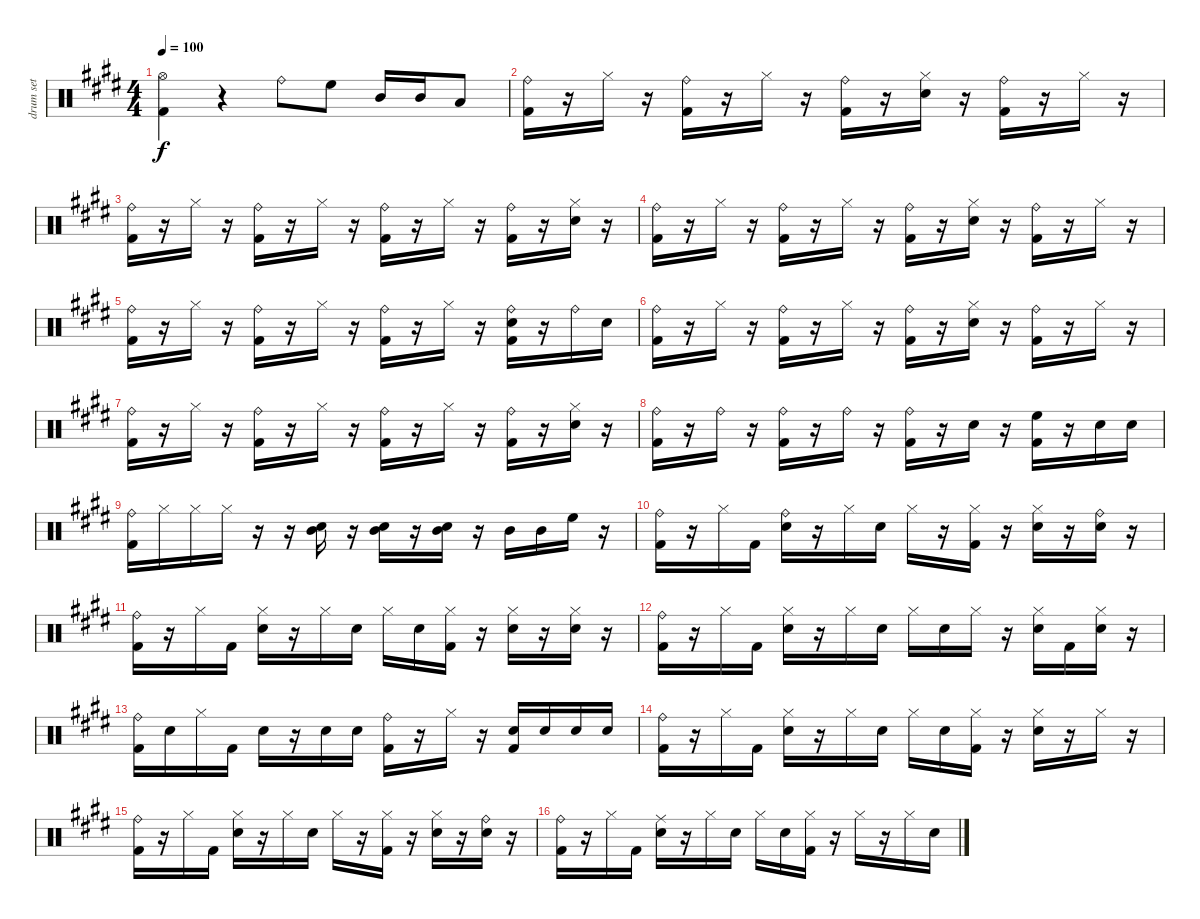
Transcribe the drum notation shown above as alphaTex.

\track ("drum set" "drum set") {instrument percussion}
\staff {score}
\articulation defaults
\ts (4 4)
\tempo 100
\clef neutral
\ks e
("Hi-Hat (open)" "Kick (hit) 2").4{dy f} r.4 "Ride (bell)".8 "High Floor Tom (hit)".8 "Mid Tom (hit)".16 "Mid Tom (hit)".16 "Low Tom (hit)".8 |
("Ride (bell)" "Kick (hit) 2").16 r.16 "Hi-Hat (closed)".16 r.16 ("Ride (bell)" "Kick (hit) 2").16 r.16 "Hi-Hat (closed)".16 r.16 ("Ride (bell)" "Kick (hit) 2").16 r.16 ("Hi-Hat (closed)" "Snare (hit) 2").16 r.16 ("Ride (bell)" "Kick (hit) 2").16 r.16 "Hi-Hat (closed)".16 r.16 |
("Ride (bell)" "Kick (hit) 2").16 r.16 "Hi-Hat (closed)".16 r.16 ("Ride (bell)" "Kick (hit) 2").16 r.16 "Hi-Hat (closed)".16 r.16 ("Ride (bell)" "Kick (hit) 2").16 r.16 "Hi-Hat (closed)".16 r.16 ("Ride (bell)" "Kick (hit) 2").16 r.16 ("Hi-Hat (closed)" "Snare (hit) 2").16 r.16 |
("Ride (bell)" "Kick (hit) 2").16 r.16 "Hi-Hat (closed)".16 r.16 ("Ride (bell)" "Kick (hit) 2").16 r.16 "Hi-Hat (closed)".16 r.16 ("Ride (bell)" "Kick (hit) 2").16 r.16 ("Hi-Hat (closed)" "Snare (hit) 2").16 r.16 ("Ride (bell)" "Kick (hit) 2").16 r.16 "Hi-Hat (closed)".16 r.16 |
("Ride (bell)" "Kick (hit) 2").16 r.16 "Hi-Hat (closed)".16 r.16 ("Ride (bell)" "Kick (hit) 2").16 r.16 "Hi-Hat (closed)".16 r.16 ("Ride (bell)" "Kick (hit) 2").16 r.16 "Hi-Hat (closed)".16 r.16 ("Ride (bell)" "Kick (hit) 2" "Snare (hit) 2").16 r.16 "Ride (bell)".16 "Snare (hit) 2".16 |
("Ride (bell)" "Kick (hit) 2").16 r.16 "Hi-Hat (closed)".16 r.16 ("Ride (bell)" "Kick (hit) 2").16 r.16 "Hi-Hat (closed)".16 r.16 ("Ride (bell)" "Kick (hit) 2").16 r.16 ("Hi-Hat (closed)" "Snare (hit) 2").16 r.16 ("Ride (bell)" "Kick (hit) 2").16 r.16 "Hi-Hat (closed)".16 r.16 |
("Ride (bell)" "Kick (hit) 2").16 r.16 "Hi-Hat (closed)".16 r.16 ("Ride (bell)" "Kick (hit) 2").16 r.16 "Hi-Hat (closed)".16 r.16 ("Ride (bell)" "Kick (hit) 2").16 r.16 "Hi-Hat (closed)".16 r.16 ("Ride (bell)" "Kick (hit) 2").16 r.16 ("Hi-Hat (closed)" "Snare (hit) 2").16 r.16 |
("Ride (bell)" "Kick (hit) 2").16 r.16 "Ride (bell)".16 r.16 ("Ride (bell)" "Kick (hit) 2").16 r.16 "Ride (bell)".16 r.16 ("Ride (bell)" "Kick (hit) 2").16 r.16 "Snare (hit) 2".16 r.16 ("High Floor Tom (hit)" "Kick (hit) 2").16 r.16 "Snare (hit) 2".16 "Snare (hit) 2".16 |
("Ride (bell)" "Kick (hit) 2").16 "Hi-Hat (closed)".16 "Hi-Hat (closed)".16 "Hi-Hat (closed)".16 r.16 r.16 ("Snare (hit) 2" "Mid Tom (hit)").16 r.16 ("Snare (hit) 2" "Mid Tom (hit)").16 r.16 ("Snare (hit) 2" "Mid Tom (hit)").16 r.16 "Mid Tom (hit)".16 "Mid Tom (hit)".16 "High Floor Tom (hit)".16 r.16 |
("Ride (bell)" "Kick (hit) 2").16 r.16 "Hi-Hat (closed)".16 "Kick (hit) 2".16 ("Ride (bell)" "Snare (hit) 2").16 r.16 "Hi-Hat (closed)".16 "Snare (hit) 2".16 "Hi-Hat (closed)".16 r.16 ("Hi-Hat (closed)" "Kick (hit) 2").16 r.16 ("Hi-Hat (closed)" "Snare (hit) 2").16 r.16 ("Ride (bell)" "Snare (hit) 2").16 r.16 |
("Ride (bell)" "Kick (hit) 2").16 r.16 "Hi-Hat (closed)".16 "Kick (hit) 2".16 ("Hi-Hat (closed)" "Snare (hit) 2").16 r.16 "Hi-Hat (closed)".16 "Snare (hit) 2".16 "Hi-Hat (closed)".16 "Snare (hit) 2".16 ("Hi-Hat (closed)" "Kick (hit) 2").16 r.16 ("Hi-Hat (closed)" "Snare (hit) 2").16 r.16 ("Hi-Hat (closed)" "Snare (hit) 2").16 r.16 |
("Ride (bell)" "Kick (hit) 2").16 r.16 "Hi-Hat (closed)".16 "Kick (hit) 2".16 ("Hi-Hat (closed)" "Snare (hit) 2").16 r.16 "Hi-Hat (closed)".16 "Snare (hit) 2".16 "Hi-Hat (closed)".16 "Snare (hit) 2".16 "Hi-Hat (closed)".16 r.16 ("Hi-Hat (closed)" "Snare (hit) 2").16 "Kick (hit) 2".16 ("Hi-Hat (closed)" "Snare (hit) 2").16 r.16 |
("Ride (bell)" "Kick (hit) 2").16 "Snare (hit) 2".16 "Hi-Hat (closed)".16 "Kick (hit) 2".16 "Snare (hit) 2".16 r.16 "Snare (hit) 2".16 "Snare (hit) 2".16 ("Ride (bell)" "Kick (hit) 2").16 r.16 "Hi-Hat (closed)".16 r.16 ("Snare (hit) 2" "Kick (hit) 2").16 "Snare (hit) 2".16 "Snare (hit) 2".16 "Snare (hit) 2".16 |
("Ride (bell)" "Kick (hit) 2").16 r.16 "Hi-Hat (closed)".16 "Kick (hit) 2".16 ("Hi-Hat (closed)" "Snare (hit) 2").16 r.16 "Hi-Hat (closed)".16 "Snare (hit) 2".16 "Hi-Hat (closed)".16 "Snare (hit) 2".16 ("Kick (hit) 2" "Hi-Hat (closed)").16 r.16 ("Hi-Hat (closed)" "Snare (hit) 2").16 r.16 "Hi-Hat (closed)".16 r.16 |
("Ride (bell)" "Kick (hit) 2").16 r.16 "Hi-Hat (closed)".16 "Kick (hit) 2".16 ("Hi-Hat (closed)" "Snare (hit) 2").16 r.16 "Hi-Hat (closed)".16 "Snare (hit) 2".16 "Hi-Hat (closed)".16 r.16 ("Hi-Hat (closed)" "Kick (hit) 2").16 r.16 ("Hi-Hat (closed)" "Snare (hit) 2").16 r.16 ("Ride (bell)" "Snare (hit) 2").16 r.16 |
("Ride (bell)" "Kick (hit) 2").16 r.16 "Hi-Hat (closed)".16 "Kick (hit) 2".16 ("Ride (middle)" "Snare (hit) 2").16 r.16 "Hi-Hat (closed)".16 "Snare (hit) 2".16 "Hi-Hat (closed)".16 "Snare (hit) 2".16 ("Hi-Hat (closed)" "Kick (hit) 2").16 r.16 "Hi-Hat (closed)".16 r.16 "Hi-Hat (closed)".16 "Snare (hit) 2".16
